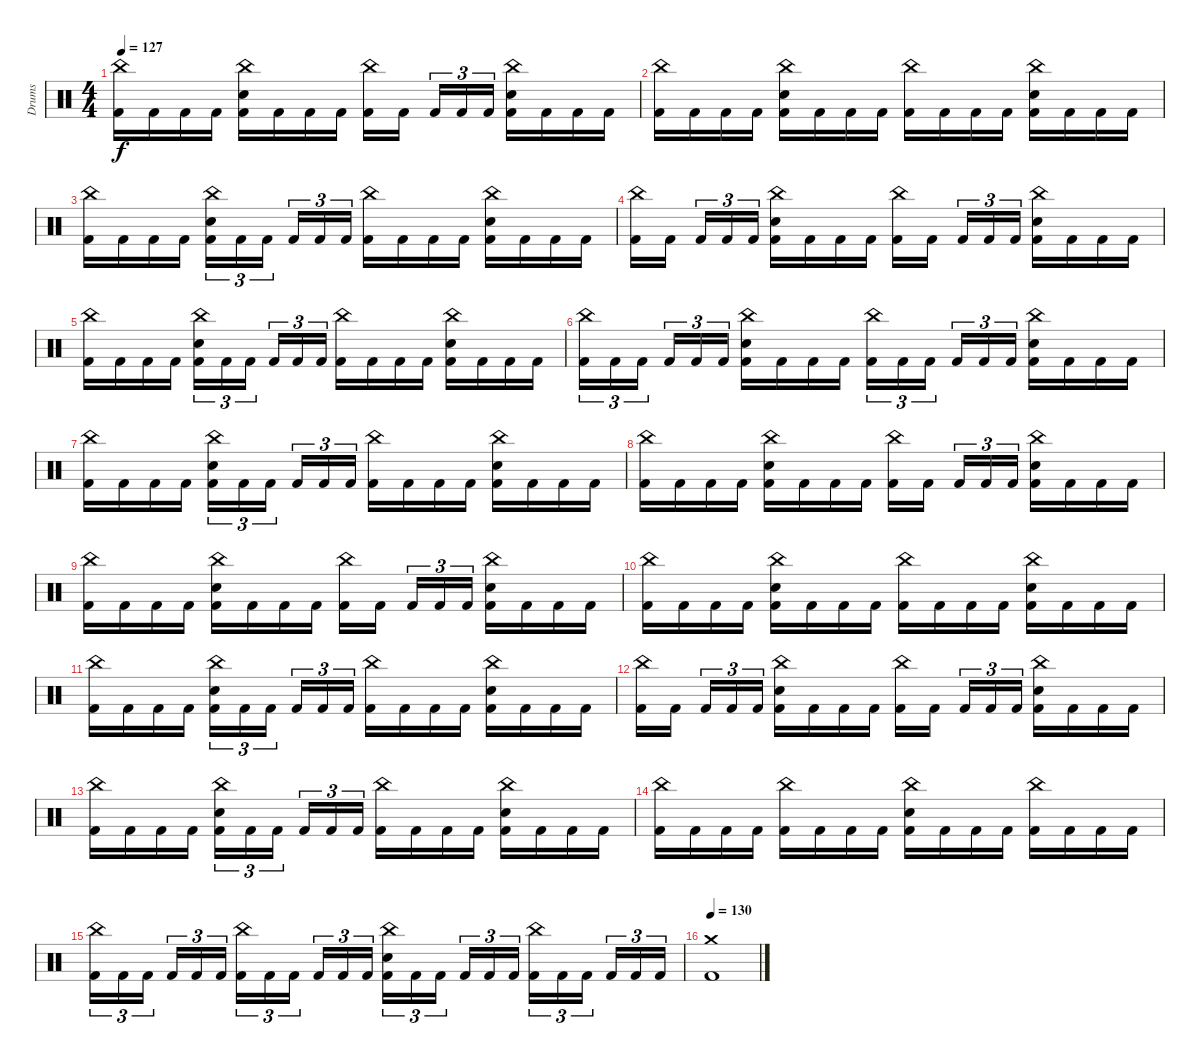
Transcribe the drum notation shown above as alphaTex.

\track ("Drums" "Drums") {instrument percussion}
\staff {score}
\articulation defaults
\ts (4 4)
\tempo 127
\clef neutral
\ks c
("China (hit)" "Kick (hit) 2").16{dy f} "Kick (hit) 2".16 "Kick (hit) 2".16 "Kick (hit) 2".16 ("China (hit)" "Snare (hit) 2" "Kick (hit) 2").16 "Kick (hit) 2".16 "Kick (hit) 2".16 "Kick (hit) 2".16 ("China (hit)" "Kick (hit) 2").16 "Kick (hit) 2".16{beam splitsecondary} "Kick (hit) 2".16{tu (3 2)} "Kick (hit) 2".16{tu (3 2)} "Kick (hit) 2".16{tu (3 2)} ("China (hit)" "Snare (hit) 2" "Kick (hit) 2").16 "Kick (hit) 2".16 "Kick (hit) 2".16 "Kick (hit) 2".16 |
("China (hit)" "Kick (hit) 2").16 "Kick (hit) 2".16 "Kick (hit) 2".16 "Kick (hit) 2".16 ("China (hit)" "Snare (hit) 2" "Kick (hit) 2").16 "Kick (hit) 2".16 "Kick (hit) 2".16 "Kick (hit) 2".16 ("China (hit)" "Kick (hit) 2").16 "Kick (hit) 2".16 "Kick (hit) 2".16 "Kick (hit) 2".16 ("China (hit)" "Snare (hit) 2" "Kick (hit) 2").16 "Kick (hit) 2".16 "Kick (hit) 2".16 "Kick (hit) 2".16 |
("China (hit)" "Kick (hit) 2").16 "Kick (hit) 2".16 "Kick (hit) 2".16 "Kick (hit) 2".16 ("China (hit)" "Snare (hit) 2" "Kick (hit) 2").16{tu (3 2)} "Kick (hit) 2".16{tu (3 2)} "Kick (hit) 2".16{tu (3 2) beam splitsecondary} "Kick (hit) 2".16{tu (3 2)} "Kick (hit) 2".16{tu (3 2)} "Kick (hit) 2".16{tu (3 2)} ("China (hit)" "Kick (hit) 2").16 "Kick (hit) 2".16 "Kick (hit) 2".16 "Kick (hit) 2".16 ("China (hit)" "Snare (hit) 2" "Kick (hit) 2").16 "Kick (hit) 2".16 "Kick (hit) 2".16 "Kick (hit) 2".16 |
("China (hit)" "Kick (hit) 2").16 "Kick (hit) 2".16{beam splitsecondary} "Kick (hit) 2".16{tu (3 2)} "Kick (hit) 2".16{tu (3 2)} "Kick (hit) 2".16{tu (3 2)} ("China (hit)" "Snare (hit) 2" "Kick (hit) 2").16 "Kick (hit) 2".16 "Kick (hit) 2".16 "Kick (hit) 2".16 ("China (hit)" "Kick (hit) 2").16 "Kick (hit) 2".16{beam splitsecondary} "Kick (hit) 2".16{tu (3 2)} "Kick (hit) 2".16{tu (3 2)} "Kick (hit) 2".16{tu (3 2)} ("China (hit)" "Snare (hit) 2" "Kick (hit) 2").16 "Kick (hit) 2".16 "Kick (hit) 2".16 "Kick (hit) 2".16 |
("China (hit)" "Kick (hit) 2").16 "Kick (hit) 2".16 "Kick (hit) 2".16 "Kick (hit) 2".16 ("China (hit)" "Snare (hit) 2" "Kick (hit) 2").16{tu (3 2)} "Kick (hit) 2".16{tu (3 2)} "Kick (hit) 2".16{tu (3 2) beam splitsecondary} "Kick (hit) 2".16{tu (3 2)} "Kick (hit) 2".16{tu (3 2)} "Kick (hit) 2".16{tu (3 2)} ("China (hit)" "Kick (hit) 2").16 "Kick (hit) 2".16 "Kick (hit) 2".16 "Kick (hit) 2".16 ("China (hit)" "Snare (hit) 2" "Kick (hit) 2").16 "Kick (hit) 2".16 "Kick (hit) 2".16 "Kick (hit) 2".16 |
("China (hit)" "Kick (hit) 2").16{tu (3 2)} "Kick (hit) 2".16{tu (3 2)} "Kick (hit) 2".16{tu (3 2) beam splitsecondary} "Kick (hit) 2".16{tu (3 2)} "Kick (hit) 2".16{tu (3 2)} "Kick (hit) 2".16{tu (3 2)} ("China (hit)" "Snare (hit) 2" "Kick (hit) 2").16 "Kick (hit) 2".16 "Kick (hit) 2".16 "Kick (hit) 2".16 ("China (hit)" "Kick (hit) 2").16{tu (3 2)} "Kick (hit) 2".16{tu (3 2)} "Kick (hit) 2".16{tu (3 2) beam splitsecondary} "Kick (hit) 2".16{tu (3 2)} "Kick (hit) 2".16{tu (3 2)} "Kick (hit) 2".16{tu (3 2)} ("China (hit)" "Snare (hit) 2" "Kick (hit) 2").16 "Kick (hit) 2".16 "Kick (hit) 2".16 "Kick (hit) 2".16 |
("China (hit)" "Kick (hit) 2").16 "Kick (hit) 2".16 "Kick (hit) 2".16 "Kick (hit) 2".16 ("China (hit)" "Snare (hit) 2" "Kick (hit) 2").16{tu (3 2)} "Kick (hit) 2".16{tu (3 2)} "Kick (hit) 2".16{tu (3 2) beam splitsecondary} "Kick (hit) 2".16{tu (3 2)} "Kick (hit) 2".16{tu (3 2)} "Kick (hit) 2".16{tu (3 2)} ("China (hit)" "Kick (hit) 2").16 "Kick (hit) 2".16 "Kick (hit) 2".16 "Kick (hit) 2".16 ("China (hit)" "Snare (hit) 2" "Kick (hit) 2").16 "Kick (hit) 2".16 "Kick (hit) 2".16 "Kick (hit) 2".16 |
("China (hit)" "Kick (hit) 2").16 "Kick (hit) 2".16 "Kick (hit) 2".16 "Kick (hit) 2".16 ("China (hit)" "Snare (hit) 2" "Kick (hit) 2").16 "Kick (hit) 2".16 "Kick (hit) 2".16 "Kick (hit) 2".16 ("China (hit)" "Kick (hit) 2").16 "Kick (hit) 2".16{beam splitsecondary} "Kick (hit) 2".16{tu (3 2)} "Kick (hit) 2".16{tu (3 2)} "Kick (hit) 2".16{tu (3 2)} ("China (hit)" "Snare (hit) 2" "Kick (hit) 2").16 "Kick (hit) 2".16 "Kick (hit) 2".16 "Kick (hit) 2".16 |
("China (hit)" "Kick (hit) 2").16 "Kick (hit) 2".16 "Kick (hit) 2".16 "Kick (hit) 2".16 ("China (hit)" "Snare (hit) 2" "Kick (hit) 2").16 "Kick (hit) 2".16 "Kick (hit) 2".16 "Kick (hit) 2".16 ("China (hit)" "Kick (hit) 2").16 "Kick (hit) 2".16{beam splitsecondary} "Kick (hit) 2".16{tu (3 2)} "Kick (hit) 2".16{tu (3 2)} "Kick (hit) 2".16{tu (3 2)} ("China (hit)" "Snare (hit) 2" "Kick (hit) 2").16 "Kick (hit) 2".16 "Kick (hit) 2".16 "Kick (hit) 2".16 |
("China (hit)" "Kick (hit) 2").16 "Kick (hit) 2".16 "Kick (hit) 2".16 "Kick (hit) 2".16 ("China (hit)" "Snare (hit) 2" "Kick (hit) 2").16 "Kick (hit) 2".16 "Kick (hit) 2".16 "Kick (hit) 2".16 ("China (hit)" "Kick (hit) 2").16 "Kick (hit) 2".16 "Kick (hit) 2".16 "Kick (hit) 2".16 ("China (hit)" "Snare (hit) 2" "Kick (hit) 2").16 "Kick (hit) 2".16 "Kick (hit) 2".16 "Kick (hit) 2".16 |
("China (hit)" "Kick (hit) 2").16 "Kick (hit) 2".16 "Kick (hit) 2".16 "Kick (hit) 2".16 ("China (hit)" "Snare (hit) 2" "Kick (hit) 2").16{tu (3 2)} "Kick (hit) 2".16{tu (3 2)} "Kick (hit) 2".16{tu (3 2) beam splitsecondary} "Kick (hit) 2".16{tu (3 2)} "Kick (hit) 2".16{tu (3 2)} "Kick (hit) 2".16{tu (3 2)} ("China (hit)" "Kick (hit) 2").16 "Kick (hit) 2".16 "Kick (hit) 2".16 "Kick (hit) 2".16 ("China (hit)" "Snare (hit) 2" "Kick (hit) 2").16 "Kick (hit) 2".16 "Kick (hit) 2".16 "Kick (hit) 2".16 |
("China (hit)" "Kick (hit) 2").16 "Kick (hit) 2".16{beam splitsecondary} "Kick (hit) 2".16{tu (3 2)} "Kick (hit) 2".16{tu (3 2)} "Kick (hit) 2".16{tu (3 2)} ("China (hit)" "Snare (hit) 2" "Kick (hit) 2").16 "Kick (hit) 2".16 "Kick (hit) 2".16 "Kick (hit) 2".16 ("China (hit)" "Kick (hit) 2").16 "Kick (hit) 2".16{beam splitsecondary} "Kick (hit) 2".16{tu (3 2)} "Kick (hit) 2".16{tu (3 2)} "Kick (hit) 2".16{tu (3 2)} ("China (hit)" "Snare (hit) 2" "Kick (hit) 2").16 "Kick (hit) 2".16 "Kick (hit) 2".16 "Kick (hit) 2".16 |
("China (hit)" "Kick (hit) 2").16 "Kick (hit) 2".16 "Kick (hit) 2".16 "Kick (hit) 2".16 ("China (hit)" "Snare (hit) 2" "Kick (hit) 2").16{tu (3 2)} "Kick (hit) 2".16{tu (3 2)} "Kick (hit) 2".16{tu (3 2) beam splitsecondary} "Kick (hit) 2".16{tu (3 2)} "Kick (hit) 2".16{tu (3 2)} "Kick (hit) 2".16{tu (3 2)} ("China (hit)" "Kick (hit) 2").16 "Kick (hit) 2".16 "Kick (hit) 2".16 "Kick (hit) 2".16 ("China (hit)" "Snare (hit) 2" "Kick (hit) 2").16 "Kick (hit) 2".16 "Kick (hit) 2".16 "Kick (hit) 2".16 |
("China (hit)" "Kick (hit) 2").16 "Kick (hit) 2".16 "Kick (hit) 2".16 "Kick (hit) 2".16 ("China (hit)" "Kick (hit) 2").16 "Kick (hit) 2".16 "Kick (hit) 2".16 "Kick (hit) 2".16 ("China (hit)" "Snare (hit) 2" "Kick (hit) 2").16 "Kick (hit) 2".16 "Kick (hit) 2".16 "Kick (hit) 2".16 ("China (hit)" "Kick (hit) 2").16 "Kick (hit) 2".16 "Kick (hit) 2".16 "Kick (hit) 2".16 |
("China (hit)" "Kick (hit) 2").16{tu (3 2)} "Kick (hit) 2".16{tu (3 2)} "Kick (hit) 2".16{tu (3 2) beam splitsecondary} "Kick (hit) 2".16{tu (3 2)} "Kick (hit) 2".16{tu (3 2)} "Kick (hit) 2".16{tu (3 2)} ("China (hit)" "Kick (hit) 2").16{tu (3 2)} "Kick (hit) 2".16{tu (3 2)} "Kick (hit) 2".16{tu (3 2) beam splitsecondary} "Kick (hit) 2".16{tu (3 2)} "Kick (hit) 2".16{tu (3 2)} "Kick (hit) 2".16{tu (3 2)} ("China (hit)" "Snare (hit) 2" "Kick (hit) 2").16{tu (3 2)} "Kick (hit) 2".16{tu (3 2)} "Kick (hit) 2".16{tu (3 2) beam splitsecondary} "Kick (hit) 2".16{tu (3 2)} "Kick (hit) 2".16{tu (3 2)} "Kick (hit) 2".16{tu (3 2)} ("China (hit)" "Kick (hit) 2").16{tu (3 2)} "Kick (hit) 2".16{tu (3 2)} "Kick (hit) 2".16{tu (3 2) beam splitsecondary} "Kick (hit) 2".16{tu (3 2)} "Kick (hit) 2".16{tu (3 2)} "Kick (hit) 2".16{tu (3 2)} |
\tempo 130
("Crash medium (hit)" "Kick (hit) 2").1
